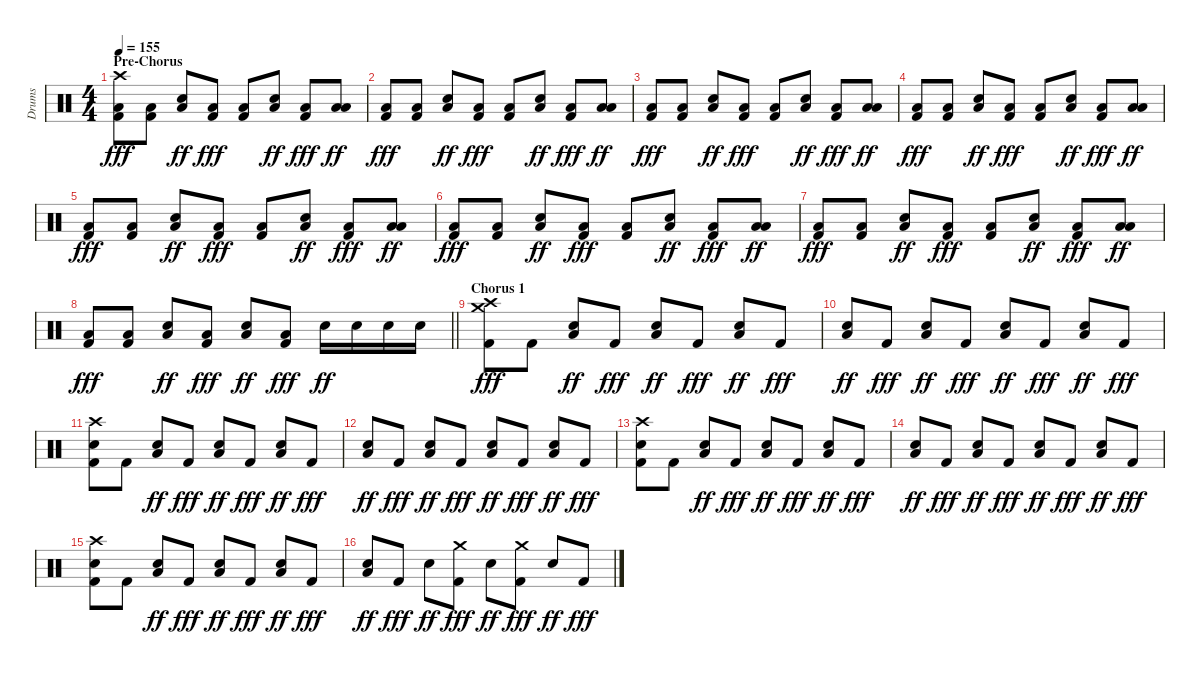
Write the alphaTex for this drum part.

\track ("Drums" "Drums") {instrument percussion}
\staff {score}
\articulation defaults
\ts (4 4)
\section ("" "Pre-Chorus")
\tempo 155
\clef neutral
\ks c
("Crash high (hit)" "Low Floor Tom (hit)" "Kick (hit) 2").8{dy fff} ("Low Floor Tom (hit)" "Kick (hit) 2").8 ("Snare (hit) 2" "Low Floor Tom (hit)").8{dy ff} ("Low Floor Tom (hit)" "Kick (hit) 2").8{dy fff} ("Low Floor Tom (hit)" "Kick (hit) 2").8 ("Snare (hit) 2" "Low Floor Tom (hit)").8{dy ff} ("Low Floor Tom (hit)" "Kick (hit) 2").8{dy fff} ("Low Tom (hit)" "Low Floor Tom (hit)").8{dy ff} |
("Low Floor Tom (hit)" "Kick (hit) 2").8{dy fff} ("Low Floor Tom (hit)" "Kick (hit) 2").8 ("Snare (hit) 2" "Low Floor Tom (hit)").8{dy ff} ("Low Floor Tom (hit)" "Kick (hit) 2").8{dy fff} ("Low Floor Tom (hit)" "Kick (hit) 2").8 ("Snare (hit) 2" "Low Floor Tom (hit)").8{dy ff} ("Low Floor Tom (hit)" "Kick (hit) 2").8{dy fff} ("Low Tom (hit)" "Low Floor Tom (hit)").8{dy ff} |
("Low Floor Tom (hit)" "Kick (hit) 2").8{dy fff} ("Low Floor Tom (hit)" "Kick (hit) 2").8 ("Snare (hit) 2" "Low Floor Tom (hit)").8{dy ff} ("Low Floor Tom (hit)" "Kick (hit) 2").8{dy fff} ("Low Floor Tom (hit)" "Kick (hit) 2").8 ("Snare (hit) 2" "Low Floor Tom (hit)").8{dy ff} ("Low Floor Tom (hit)" "Kick (hit) 2").8{dy fff} ("Low Tom (hit)" "Low Floor Tom (hit)").8{dy ff} |
("Low Floor Tom (hit)" "Kick (hit) 2").8{dy fff} ("Low Floor Tom (hit)" "Kick (hit) 2").8 ("Snare (hit) 2" "Low Floor Tom (hit)").8{dy ff} ("Low Floor Tom (hit)" "Kick (hit) 2").8{dy fff} ("Low Floor Tom (hit)" "Kick (hit) 2").8 ("Snare (hit) 2" "Low Floor Tom (hit)").8{dy ff} ("Low Floor Tom (hit)" "Kick (hit) 2").8{dy fff} ("Low Tom (hit)" "Low Floor Tom (hit)").8{dy ff} |
("Low Floor Tom (hit)" "Kick (hit) 2").8{dy fff} ("Low Floor Tom (hit)" "Kick (hit) 2").8 ("Snare (hit) 2" "Low Floor Tom (hit)").8{dy ff} ("Low Floor Tom (hit)" "Kick (hit) 2").8{dy fff} ("Low Floor Tom (hit)" "Kick (hit) 2").8 ("Snare (hit) 2" "Low Floor Tom (hit)").8{dy ff} ("Low Floor Tom (hit)" "Kick (hit) 2").8{dy fff} ("Low Tom (hit)" "Low Floor Tom (hit)").8{dy ff} |
("Low Floor Tom (hit)" "Kick (hit) 2").8{dy fff} ("Low Floor Tom (hit)" "Kick (hit) 2").8 ("Snare (hit) 2" "Low Floor Tom (hit)").8{dy ff} ("Low Floor Tom (hit)" "Kick (hit) 2").8{dy fff} ("Low Floor Tom (hit)" "Kick (hit) 2").8 ("Snare (hit) 2" "Low Floor Tom (hit)").8{dy ff} ("Low Floor Tom (hit)" "Kick (hit) 2").8{dy fff} ("Low Tom (hit)" "Low Floor Tom (hit)").8{dy ff} |
("Low Floor Tom (hit)" "Kick (hit) 2").8{dy fff} ("Low Floor Tom (hit)" "Kick (hit) 2").8 ("Snare (hit) 2" "Low Floor Tom (hit)").8{dy ff} ("Low Floor Tom (hit)" "Kick (hit) 2").8{dy fff} ("Low Floor Tom (hit)" "Kick (hit) 2").8 ("Snare (hit) 2" "Low Floor Tom (hit)").8{dy ff} ("Low Floor Tom (hit)" "Kick (hit) 2").8{dy fff} ("Low Tom (hit)" "Low Floor Tom (hit)").8{dy ff} |
\barLineRight lightlight
("Low Floor Tom (hit)" "Kick (hit) 2").8{dy fff} ("Low Floor Tom (hit)" "Kick (hit) 2").8 ("Snare (hit) 2" "Low Floor Tom (hit)").8{dy ff} ("Low Floor Tom (hit)" "Kick (hit) 2").8{dy fff} ("Snare (hit) 2" "Low Floor Tom (hit)").8{dy ff} ("Low Floor Tom (hit)" "Kick (hit) 2").8{dy fff} "Snare (hit) 2".16{dy ff} "Snare (hit) 2".16 "Snare (hit) 2".16 "Snare (hit) 2".16 |
\section ("" "Chorus 1")
("Crash high (hit)" "Crash medium (hit)" "Kick (hit) 2").8{dy fff} "Kick (hit) 2".8 ("Snare (hit) 2" "Low Floor Tom (hit)").8{dy ff} "Kick (hit) 2".8{dy fff} ("Snare (hit) 2" "Low Floor Tom (hit)").8{dy ff} "Kick (hit) 2".8{dy fff} ("Snare (hit) 2" "Low Floor Tom (hit)").8{dy ff} "Kick (hit) 2".8{dy fff} |
("Snare (hit) 2" "Low Floor Tom (hit)").8{dy ff} "Kick (hit) 2".8{dy fff} ("Snare (hit) 2" "Low Floor Tom (hit)").8{dy ff} "Kick (hit) 2".8{dy fff} ("Snare (hit) 2" "Low Floor Tom (hit)").8{dy ff} "Kick (hit) 2".8{dy fff} ("Snare (hit) 2" "Low Floor Tom (hit)").8{dy ff} "Kick (hit) 2".8{dy fff} |
("Crash high (hit)" "Snare (hit) 2" "Kick (hit) 2").8 "Kick (hit) 2".8 ("Snare (hit) 2" "Low Floor Tom (hit)").8{dy ff} "Kick (hit) 2".8{dy fff} ("Snare (hit) 2" "Low Floor Tom (hit)").8{dy ff} "Kick (hit) 2".8{dy fff} ("Snare (hit) 2" "Low Floor Tom (hit)").8{dy ff} "Kick (hit) 2".8{dy fff} |
("Snare (hit) 2" "Low Floor Tom (hit)").8{dy ff} "Kick (hit) 2".8{dy fff} ("Snare (hit) 2" "Low Floor Tom (hit)").8{dy ff} "Kick (hit) 2".8{dy fff} ("Snare (hit) 2" "Low Floor Tom (hit)").8{dy ff} "Kick (hit) 2".8{dy fff} ("Snare (hit) 2" "Low Floor Tom (hit)").8{dy ff} "Kick (hit) 2".8{dy fff} |
("Crash high (hit)" "Snare (hit) 2" "Kick (hit) 2").8 "Kick (hit) 2".8 ("Snare (hit) 2" "Low Floor Tom (hit)").8{dy ff} "Kick (hit) 2".8{dy fff} ("Snare (hit) 2" "Low Floor Tom (hit)").8{dy ff} "Kick (hit) 2".8{dy fff} ("Snare (hit) 2" "Low Floor Tom (hit)").8{dy ff} "Kick (hit) 2".8{dy fff} |
("Snare (hit) 2" "Low Floor Tom (hit)").8{dy ff} "Kick (hit) 2".8{dy fff} ("Snare (hit) 2" "Low Floor Tom (hit)").8{dy ff} "Kick (hit) 2".8{dy fff} ("Snare (hit) 2" "Low Floor Tom (hit)").8{dy ff} "Kick (hit) 2".8{dy fff} ("Snare (hit) 2" "Low Floor Tom (hit)").8{dy ff} "Kick (hit) 2".8{dy fff} |
("Crash high (hit)" "Snare (hit) 2" "Kick (hit) 2").8 "Kick (hit) 2".8 ("Snare (hit) 2" "Low Floor Tom (hit)").8{dy ff} "Kick (hit) 2".8{dy fff} ("Snare (hit) 2" "Low Floor Tom (hit)").8{dy ff} "Kick (hit) 2".8{dy fff} ("Snare (hit) 2" "Low Floor Tom (hit)").8{dy ff} "Kick (hit) 2".8{dy fff} |
("Snare (hit) 2" "Low Floor Tom (hit)").8{dy ff} "Kick (hit) 2".8{dy fff} "Snare (hit) 2".8{dy ff} ("Crash medium (hit)" "Kick (hit) 2").8{dy fff} "Snare (hit) 2".8{dy ff} ("Crash medium (hit)" "Kick (hit) 2").8{dy fff} "Snare (hit) 2".8{dy ff} "Kick (hit) 2".8{dy fff}
